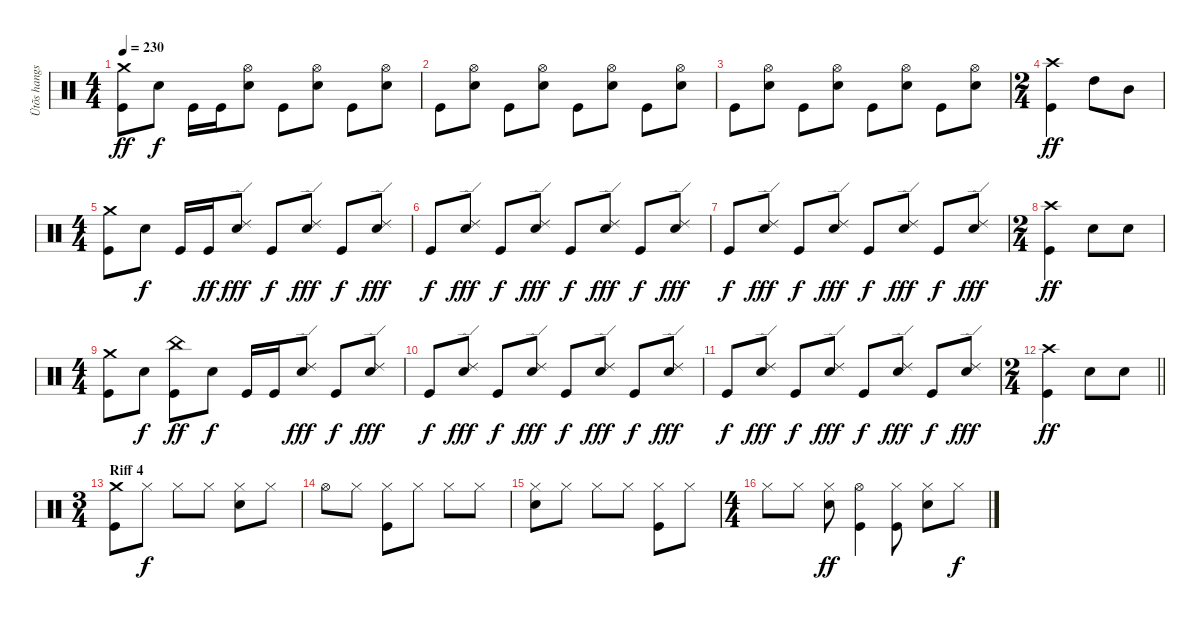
\track ("Ütõs hangszer" "Ütõs hangs") {instrument percussion}
\staff {score}
\articulation defaults
\ts (4 4)
\tempo 230
\clef neutral
\ks c
("Crash medium (hit)" "Kick (hit)").8{dy ff} "Electric Snare (hit)".8{dy f} "Kick (hit)".16 "Kick (hit)".16 ("Hi-Hat (open)" "Electric Snare (hit)").8 "Kick (hit)".8 ("Hi-Hat (open)" "Electric Snare (hit)").8 "Kick (hit)".8 ("Hi-Hat (open)" "Electric Snare (hit)").8 |
"Kick (hit)".8 ("Hi-Hat (open)" "Electric Snare (hit)").8 "Kick (hit)".8 ("Hi-Hat (open)" "Electric Snare (hit)").8 "Kick (hit)".8 ("Hi-Hat (open)" "Electric Snare (hit)").8 "Kick (hit)".8 ("Hi-Hat (open)" "Electric Snare (hit)").8 |
"Kick (hit)".8 ("Hi-Hat (open)" "Electric Snare (hit)").8 "Kick (hit)".8 ("Hi-Hat (open)" "Electric Snare (hit)").8 "Kick (hit)".8 ("Hi-Hat (open)" "Electric Snare (hit)").8 "Kick (hit)".8 ("Hi-Hat (open)" "Electric Snare (hit)").8 |
\ts (2 4)
("Crash high (hit)" "Kick (hit)").4{dy ff} "High Tom (hit)".8 "Mid Tom (hit)".8 |
\ts (4 4)
("Crash medium (hit)" "Kick (hit)").8 "Electric Snare (hit)".8{dy f} "Kick (hit)".16 "Kick (hit)".16{dy ff} ("Ride (edge) 2" "Electric Snare (hit)").8{dy fff} "Kick (hit)".8{dy f} ("Ride (edge) 2" "Electric Snare (hit)").8{dy fff} "Kick (hit)".8{dy f} ("Ride (edge) 2" "Electric Snare (hit)").8{dy fff} |
"Kick (hit)".8{dy f} ("Ride (edge) 2" "Electric Snare (hit)").8{dy fff} "Kick (hit)".8{dy f} ("Ride (edge) 2" "Electric Snare (hit)").8{dy fff} "Kick (hit)".8{dy f} ("Ride (edge) 2" "Electric Snare (hit)").8{dy fff} "Kick (hit)".8{dy f} ("Ride (edge) 2" "Electric Snare (hit)").8{dy fff} |
"Kick (hit)".8{dy f} ("Ride (edge) 2" "Electric Snare (hit)").8{dy fff} "Kick (hit)".8{dy f} ("Ride (edge) 2" "Electric Snare (hit)").8{dy fff} "Kick (hit)".8{dy f} ("Ride (edge) 2" "Electric Snare (hit)").8{dy fff} "Kick (hit)".8{dy f} ("Ride (edge) 2" "Electric Snare (hit)").8{dy fff} |
\ts (2 4)
("Crash high (hit)" "Kick (hit)").4{dy ff} "Electric Snare (hit)".8 "Electric Snare (hit)".8 |
\ts (4 4)
("Crash medium (hit)" "Kick (hit)").8 "Electric Snare (hit)".8{dy f} ("China (hit)" "Kick (hit)").8{dy ff} "Electric Snare (hit)".8{dy f} "Kick (hit)".16 "Kick (hit)".16 ("Ride (edge) 2" "Electric Snare (hit)").8{dy fff} "Kick (hit)".8{dy f} ("Ride (edge) 2" "Electric Snare (hit)").8{dy fff} |
"Kick (hit)".8{dy f} ("Ride (edge) 2" "Electric Snare (hit)").8{dy fff} "Kick (hit)".8{dy f} ("Ride (edge) 2" "Electric Snare (hit)").8{dy fff} "Kick (hit)".8{dy f} ("Ride (edge) 2" "Electric Snare (hit)").8{dy fff} "Kick (hit)".8{dy f} ("Ride (edge) 2" "Electric Snare (hit)").8{dy fff} |
"Kick (hit)".8{dy f} ("Ride (edge) 2" "Electric Snare (hit)").8{dy fff} "Kick (hit)".8{dy f} ("Ride (edge) 2" "Electric Snare (hit)").8{dy fff} "Kick (hit)".8{dy f} ("Ride (edge) 2" "Electric Snare (hit)").8{dy fff} "Kick (hit)".8{dy f} ("Ride (edge) 2" "Electric Snare (hit)").8{dy fff} |
\ts (2 4)
\barLineRight lightlight
("Crash high (hit)" "Kick (hit)").4{dy ff} "Electric Snare (hit)".8 "Electric Snare (hit)".8 |
\ts (3 4)
\section ("" "Riff 4")
("Crash medium (hit)" "Kick (hit)").8 "Hi-Hat (closed)".8{dy f} "Hi-Hat (closed)".8 "Hi-Hat (closed)".8 ("Hi-Hat (closed)" "Electric Snare (hit)").8 "Hi-Hat (closed)".8 |
"Hi-Hat (open)".8 "Hi-Hat (closed)".8 ("Hi-Hat (closed)" "Kick (hit)").8 "Hi-Hat (closed)".8 "Hi-Hat (closed)".8 "Hi-Hat (closed)".8 |
("Hi-Hat (closed)" "Electric Snare (hit)").8 "Hi-Hat (closed)".8 "Hi-Hat (closed)".8 "Hi-Hat (closed)".8 ("Hi-Hat (closed)" "Kick (hit)").8 "Hi-Hat (closed)".8 |
\ts (4 4)
"Hi-Hat (closed)".8 "Hi-Hat (closed)".8 ("Hi-Hat (closed)" "Electric Snare (hit)").8{dy ff} ("Hi-Hat (open)" "Kick (hit)").4 ("Hi-Hat (closed)" "Kick (hit)").8 ("Hi-Hat (closed)" "Electric Snare (hit)").8 "Hi-Hat (closed)".8{dy f}
